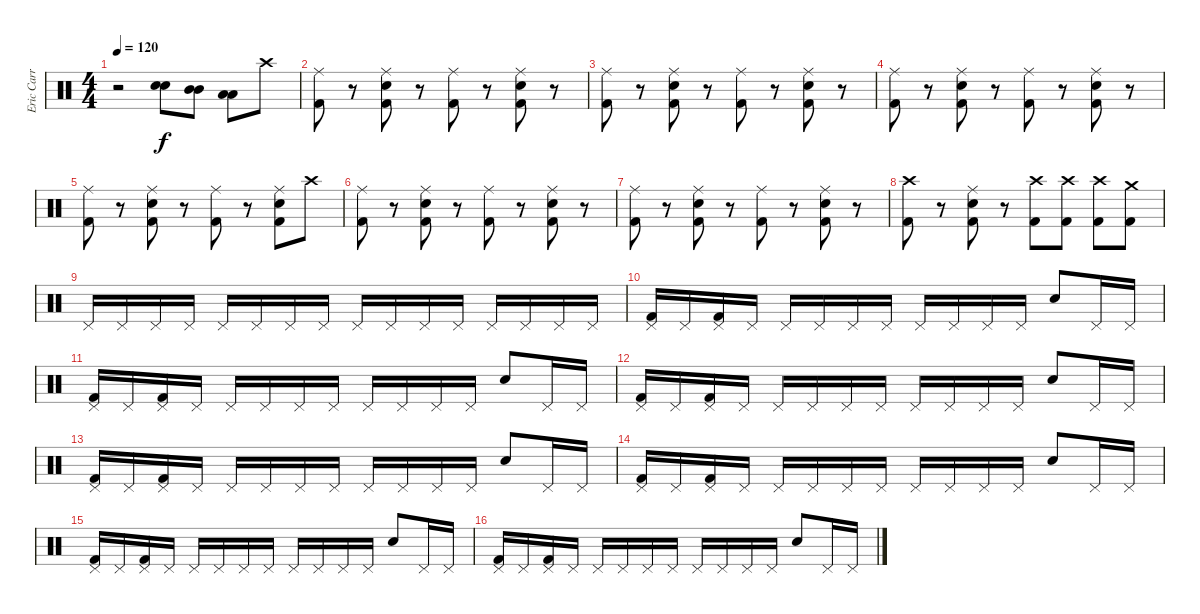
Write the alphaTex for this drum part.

\track ("Eric Carr" "Eric Carr") {instrument percussion}
\staff {score}
\articulation defaults
\ts (4 4)
\tempo 120
\clef neutral
\ks c
r.2{dy f} ("Snare (hit) 2" "Snare (hit) 2").8 ("Mid Tom (hit)" "Mid Tom (hit)").8 ("Low Tom (hit)" "Low Tom (hit)").8 "Crash high (hit)".8 |
("Kick (hit) 2" "Ride (middle)").8 r.8 ("Kick (hit) 2" "Ride (middle)" "Snare (hit) 2").8 r.8 ("Kick (hit) 2" "Ride (middle)").8 r.8 ("Kick (hit) 2" "Ride (middle)" "Snare (hit) 2").8 r.8 |
("Kick (hit) 2" "Ride (middle)").8 r.8 ("Kick (hit) 2" "Ride (middle)" "Snare (hit) 2").8 r.8 ("Kick (hit) 2" "Ride (middle)").8 r.8 ("Kick (hit) 2" "Ride (middle)" "Snare (hit) 2").8 r.8 |
("Kick (hit) 2" "Ride (middle)").8 r.8 ("Kick (hit) 2" "Ride (middle)" "Snare (hit) 2").8 r.8 ("Kick (hit) 2" "Ride (middle)").8 r.8 ("Kick (hit) 2" "Ride (middle)" "Snare (hit) 2").8 r.8 |
("Kick (hit) 2" "Ride (middle)").8 r.8 ("Kick (hit) 2" "Ride (middle)" "Snare (hit) 2").8 r.8 ("Kick (hit) 2" "Ride (middle)").8 r.8 ("Kick (hit) 2" "Ride (middle)" "Snare (hit) 2").8 "Crash high (hit)".8 |
("Kick (hit) 2" "Ride (middle)").8 r.8 ("Kick (hit) 2" "Ride (middle)" "Snare (hit) 2").8 r.8 ("Kick (hit) 2" "Ride (middle)").8 r.8 ("Kick (hit) 2" "Ride (middle)" "Snare (hit) 2").8 r.8 |
("Kick (hit) 2" "Ride (middle)").8 r.8 ("Kick (hit) 2" "Ride (middle)" "Snare (hit) 2").8 r.8 ("Kick (hit) 2" "Ride (middle)").8 r.8 ("Kick (hit) 2" "Ride (middle)" "Snare (hit) 2").8 r.8 |
("Kick (hit) 2" "Crash high (hit)").8 r.8 ("Kick (hit) 2" "Ride (middle)" "Snare (hit) 2").8 r.8 ("Kick (hit) 2" "Crash high (hit)").8 ("Kick (hit) 2" "Crash high (hit)").8 ("Kick (hit) 2" "Crash high (hit)").8 ("Kick (hit) 2" "Crash medium (hit)").8 |
"Pedal Hi-Hat (hit)".16 "Pedal Hi-Hat (hit)".16 "Pedal Hi-Hat (hit)".16 "Pedal Hi-Hat (hit)".16 "Pedal Hi-Hat (hit)".16 "Pedal Hi-Hat (hit)".16 "Pedal Hi-Hat (hit)".16 "Pedal Hi-Hat (hit)".16 "Pedal Hi-Hat (hit)".16 "Pedal Hi-Hat (hit)".16 "Pedal Hi-Hat (hit)".16 "Pedal Hi-Hat (hit)".16 "Pedal Hi-Hat (hit)".16 "Pedal Hi-Hat (hit)".16 "Pedal Hi-Hat (hit)".16 "Pedal Hi-Hat (hit)".16 |
("Kick (hit) 2" "Pedal Hi-Hat (hit)").16 "Pedal Hi-Hat (hit)".16 ("Kick (hit) 2" "Pedal Hi-Hat (hit)").16 "Pedal Hi-Hat (hit)".16 "Pedal Hi-Hat (hit)".16 "Pedal Hi-Hat (hit)".16 "Pedal Hi-Hat (hit)".16 "Pedal Hi-Hat (hit)".16 "Pedal Hi-Hat (hit)".16 "Pedal Hi-Hat (hit)".16 "Pedal Hi-Hat (hit)".16 "Pedal Hi-Hat (hit)".16 "Snare (hit) 2".8 "Pedal Hi-Hat (hit)".16 "Pedal Hi-Hat (hit)".16 |
("Kick (hit) 2" "Pedal Hi-Hat (hit)").16 "Pedal Hi-Hat (hit)".16 ("Kick (hit) 2" "Pedal Hi-Hat (hit)").16 "Pedal Hi-Hat (hit)".16 "Pedal Hi-Hat (hit)".16 "Pedal Hi-Hat (hit)".16 "Pedal Hi-Hat (hit)".16 "Pedal Hi-Hat (hit)".16 "Pedal Hi-Hat (hit)".16 "Pedal Hi-Hat (hit)".16 "Pedal Hi-Hat (hit)".16 "Pedal Hi-Hat (hit)".16 "Snare (hit) 2".8 "Pedal Hi-Hat (hit)".16 "Pedal Hi-Hat (hit)".16 |
("Kick (hit) 2" "Pedal Hi-Hat (hit)").16 "Pedal Hi-Hat (hit)".16 ("Kick (hit) 2" "Pedal Hi-Hat (hit)").16 "Pedal Hi-Hat (hit)".16 "Pedal Hi-Hat (hit)".16 "Pedal Hi-Hat (hit)".16 "Pedal Hi-Hat (hit)".16 "Pedal Hi-Hat (hit)".16 "Pedal Hi-Hat (hit)".16 "Pedal Hi-Hat (hit)".16 "Pedal Hi-Hat (hit)".16 "Pedal Hi-Hat (hit)".16 "Snare (hit) 2".8 "Pedal Hi-Hat (hit)".16 "Pedal Hi-Hat (hit)".16 |
("Kick (hit) 2" "Pedal Hi-Hat (hit)").16 "Pedal Hi-Hat (hit)".16 ("Kick (hit) 2" "Pedal Hi-Hat (hit)").16 "Pedal Hi-Hat (hit)".16 "Pedal Hi-Hat (hit)".16 "Pedal Hi-Hat (hit)".16 "Pedal Hi-Hat (hit)".16 "Pedal Hi-Hat (hit)".16 "Pedal Hi-Hat (hit)".16 "Pedal Hi-Hat (hit)".16 "Pedal Hi-Hat (hit)".16 "Pedal Hi-Hat (hit)".16 "Snare (hit) 2".8 "Pedal Hi-Hat (hit)".16 "Pedal Hi-Hat (hit)".16 |
("Kick (hit) 2" "Pedal Hi-Hat (hit)").16 "Pedal Hi-Hat (hit)".16 ("Kick (hit) 2" "Pedal Hi-Hat (hit)").16 "Pedal Hi-Hat (hit)".16 "Pedal Hi-Hat (hit)".16 "Pedal Hi-Hat (hit)".16 "Pedal Hi-Hat (hit)".16 "Pedal Hi-Hat (hit)".16 "Pedal Hi-Hat (hit)".16 "Pedal Hi-Hat (hit)".16 "Pedal Hi-Hat (hit)".16 "Pedal Hi-Hat (hit)".16 "Snare (hit) 2".8 "Pedal Hi-Hat (hit)".16 "Pedal Hi-Hat (hit)".16 |
("Kick (hit) 2" "Pedal Hi-Hat (hit)").16 "Pedal Hi-Hat (hit)".16 ("Kick (hit) 2" "Pedal Hi-Hat (hit)").16 "Pedal Hi-Hat (hit)".16 "Pedal Hi-Hat (hit)".16 "Pedal Hi-Hat (hit)".16 "Pedal Hi-Hat (hit)".16 "Pedal Hi-Hat (hit)".16 "Pedal Hi-Hat (hit)".16 "Pedal Hi-Hat (hit)".16 "Pedal Hi-Hat (hit)".16 "Pedal Hi-Hat (hit)".16 "Snare (hit) 2".8 "Pedal Hi-Hat (hit)".16 "Pedal Hi-Hat (hit)".16 |
("Kick (hit) 2" "Pedal Hi-Hat (hit)").16 "Pedal Hi-Hat (hit)".16 ("Kick (hit) 2" "Pedal Hi-Hat (hit)").16 "Pedal Hi-Hat (hit)".16 "Pedal Hi-Hat (hit)".16 "Pedal Hi-Hat (hit)".16 "Pedal Hi-Hat (hit)".16 "Pedal Hi-Hat (hit)".16 "Pedal Hi-Hat (hit)".16 "Pedal Hi-Hat (hit)".16 "Pedal Hi-Hat (hit)".16 "Pedal Hi-Hat (hit)".16 "Snare (hit) 2".8 "Pedal Hi-Hat (hit)".16 "Pedal Hi-Hat (hit)".16
